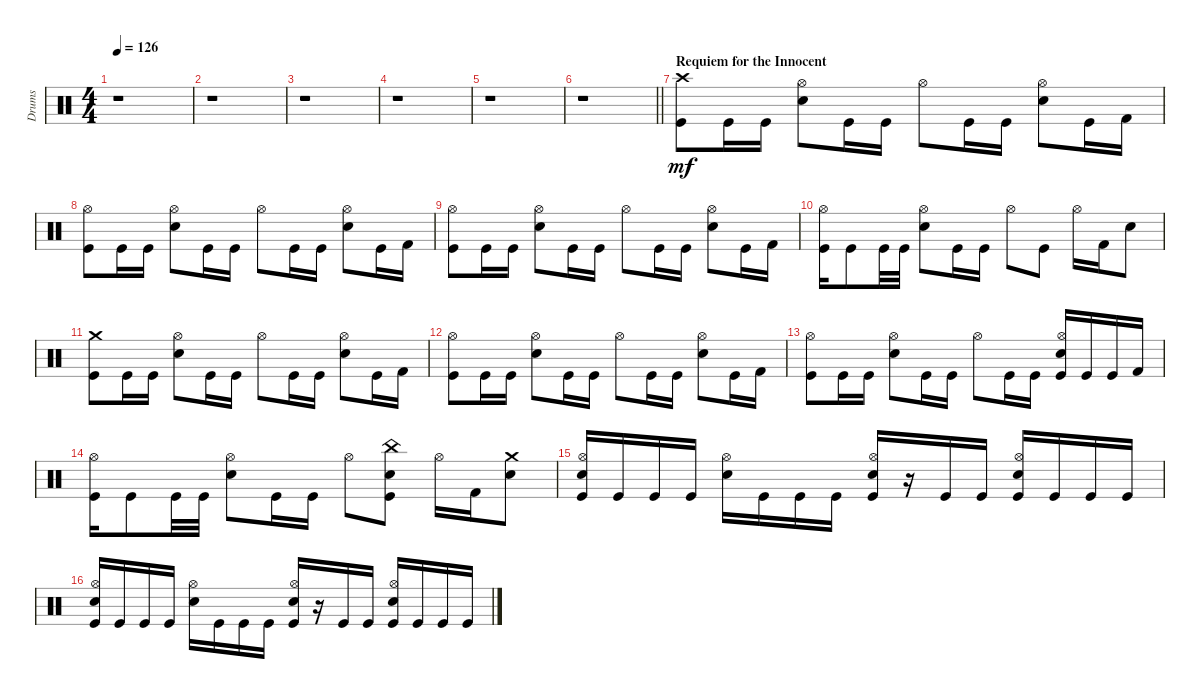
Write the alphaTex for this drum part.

\track ("Drums" "Drums") {instrument percussion bank 127}
\staff {score}
\articulation defaults
\ts (4 4)
\tempo 126
\clef neutral
\ks c
r.1{dy f} |
r.1 |
r.1 |
r.1 |
r.1 |
\barLineRight lightlight
r.1 |
\section ("" "Requiem for the Innocent")
("Crash high (hit)" "Kick (hit)").8{dy mf} "Kick (hit)".16 "Kick (hit)".16 ("Hi-Hat (open)" "Snare (hit) 2").8 "Kick (hit)".16 "Kick (hit)".16 "Hi-Hat (open)".8 "Kick (hit)".16 "Kick (hit)".16 ("Hi-Hat (open)" "Snare (hit) 2").8 "Kick (hit)".16 "Kick (hit) 2".16 |
("Hi-Hat (open)" "Kick (hit)").8 "Kick (hit)".16 "Kick (hit)".16 ("Hi-Hat (open)" "Snare (hit) 2").8 "Kick (hit)".16 "Kick (hit)".16 "Hi-Hat (open)".8 "Kick (hit)".16 "Kick (hit)".16 ("Hi-Hat (open)" "Snare (hit) 2").8 "Kick (hit)".16 "Kick (hit) 2".16 |
("Hi-Hat (open)" "Kick (hit)").8 "Kick (hit)".16 "Kick (hit)".16 ("Hi-Hat (open)" "Snare (hit) 2").8 "Kick (hit)".16 "Kick (hit)".16 "Hi-Hat (open)".8 "Kick (hit)".16 "Kick (hit)".16 ("Hi-Hat (open)" "Snare (hit) 2").8 "Kick (hit)".16 "Kick (hit) 2".16 |
("Hi-Hat (open)" "Kick (hit)").16 "Kick (hit)".8 "Kick (hit)".32 "Kick (hit)".32 ("Hi-Hat (open)" "Snare (hit) 2").8 "Kick (hit)".16 "Kick (hit)".16 "Hi-Hat (open)".8 "Kick (hit)".8 "Hi-Hat (open)".16 "Kick (hit) 2".16 "Snare (hit) 2".8 |
("Crash medium (hit)" "Kick (hit)").8 "Kick (hit)".16 "Kick (hit)".16 ("Hi-Hat (open)" "Snare (hit) 2").8 "Kick (hit)".16 "Kick (hit)".16 "Hi-Hat (open)".8 "Kick (hit)".16 "Kick (hit)".16 ("Hi-Hat (open)" "Snare (hit) 2").8 "Kick (hit)".16 "Kick (hit) 2".16 |
("Hi-Hat (open)" "Kick (hit)").8 "Kick (hit)".16 "Kick (hit)".16 ("Hi-Hat (open)" "Snare (hit) 2").8 "Kick (hit)".16 "Kick (hit)".16 "Hi-Hat (open)".8 "Kick (hit)".16 "Kick (hit)".16 ("Hi-Hat (open)" "Snare (hit) 2").8 "Kick (hit)".16 "Kick (hit) 2".16 |
("Hi-Hat (open)" "Kick (hit)").8 "Kick (hit)".16 "Kick (hit)".16 ("Hi-Hat (open)" "Snare (hit) 2").8 "Kick (hit)".16 "Kick (hit)".16 "Hi-Hat (open)".8 "Kick (hit)".16 "Kick (hit)".16 ("Hi-Hat (open)" "Snare (hit) 2" "Kick (hit)").16 "Kick (hit)".16 "Kick (hit)".16 "Kick (hit) 2".16 |
("Hi-Hat (open)" "Kick (hit)").16 "Kick (hit)".8 "Kick (hit)".32 "Kick (hit)".32 ("Hi-Hat (open)" "Snare (hit) 2").8 "Kick (hit)".16 "Kick (hit)".16 "Hi-Hat (open)".8 ("China (hit)" "Snare (hit) 2" "Kick (hit)").8 "Hi-Hat (open)".16 "Kick (hit) 2".16 ("Crash medium (hit)" "Snare (hit) 2").8 |
("Hi-Hat (open)" "Snare (hit) 2" "Kick (hit)").16 "Kick (hit)".16 "Kick (hit)".16 "Kick (hit)".16 ("Hi-Hat (open)" "Snare (hit) 2").16 "Kick (hit)".16 "Kick (hit)".16 "Kick (hit)".16 ("Hi-Hat (open)" "Snare (hit) 2" "Kick (hit)").16 r.16 "Kick (hit)".16 "Kick (hit)".16 ("Hi-Hat (open)" "Snare (hit) 2" "Kick (hit)").16 "Kick (hit)".16 "Kick (hit)".16 "Kick (hit)".16 |
("Hi-Hat (open)" "Snare (hit) 2" "Kick (hit)").16 "Kick (hit)".16 "Kick (hit)".16 "Kick (hit)".16 ("Hi-Hat (open)" "Snare (hit) 2").16 "Kick (hit)".16 "Kick (hit)".16 "Kick (hit)".16 ("Hi-Hat (open)" "Snare (hit) 2" "Kick (hit)").16 r.16 "Kick (hit)".16 "Kick (hit)".16 ("Hi-Hat (open)" "Snare (hit) 2" "Kick (hit)").16 "Kick (hit)".16 "Kick (hit)".16 "Kick (hit)".16
